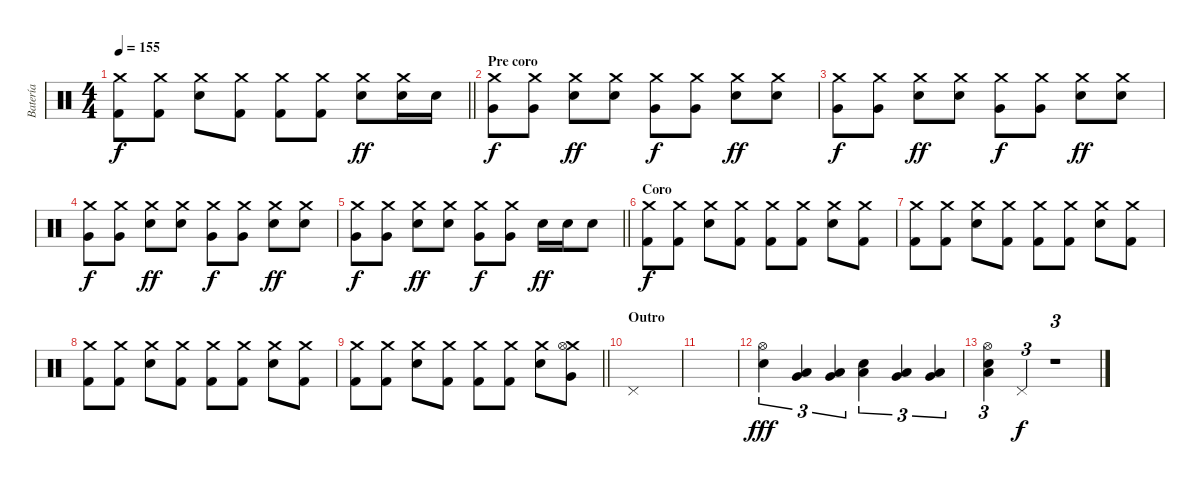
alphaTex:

\track ("Batería" "Batería") {instrument percussion}
\staff {score}
\articulation defaults
\ts (4 4)
\tempo 155
\clef neutral
\barLineRight lightlight
\ks c
("Crash medium (hit)" "Kick (hit) 2").8{dy f} ("Crash medium (hit)" "Kick (hit) 2").8 ("Crash medium (hit)" "Snare (hit) 2").8 ("Crash medium (hit)" "Kick (hit) 2").8 ("Crash medium (hit)" "Kick (hit) 2").8 ("Crash medium (hit)" "Kick (hit) 2").8 ("Crash medium (hit)" "Snare (hit) 2").8{dy ff} ("Crash medium (hit)" "Snare (hit) 2").16 "Snare (hit) 2".16 |
\section ("" "Pre coro")
("Crash medium (hit)" "Very Low Tom (hit)").8{dy f} ("Crash medium (hit)" "Very Low Tom (hit)").8 ("Crash medium (hit)" "Snare (hit) 2").8{dy ff} ("Crash medium (hit)" "Snare (hit) 2").8 ("Crash medium (hit)" "Very Low Tom (hit)").8{dy f} ("Crash medium (hit)" "Very Low Tom (hit)").8 ("Crash medium (hit)" "Snare (hit) 2").8{dy ff} ("Crash medium (hit)" "Snare (hit) 2").8 |
("Crash medium (hit)" "Very Low Tom (hit)").8{dy f} ("Crash medium (hit)" "Very Low Tom (hit)").8 ("Crash medium (hit)" "Snare (hit) 2").8{dy ff} ("Crash medium (hit)" "Snare (hit) 2").8 ("Crash medium (hit)" "Very Low Tom (hit)").8{dy f} ("Crash medium (hit)" "Very Low Tom (hit)").8 ("Crash medium (hit)" "Snare (hit) 2").8{dy ff} ("Crash medium (hit)" "Snare (hit) 2").8 |
("Crash medium (hit)" "Very Low Tom (hit)").8{dy f} ("Crash medium (hit)" "Very Low Tom (hit)").8 ("Crash medium (hit)" "Snare (hit) 2").8{dy ff} ("Crash medium (hit)" "Snare (hit) 2").8 ("Crash medium (hit)" "Very Low Tom (hit)").8{dy f} ("Crash medium (hit)" "Very Low Tom (hit)").8 ("Crash medium (hit)" "Snare (hit) 2").8{dy ff} ("Crash medium (hit)" "Snare (hit) 2").8 |
\barLineRight lightlight
("Crash medium (hit)" "Very Low Tom (hit)").8{dy f} ("Crash medium (hit)" "Very Low Tom (hit)").8 ("Crash medium (hit)" "Snare (hit) 2").8{dy ff} ("Crash medium (hit)" "Snare (hit) 2").8 ("Crash medium (hit)" "Very Low Tom (hit)").8{dy f} ("Crash medium (hit)" "Very Low Tom (hit)").8 "Snare (hit) 2".16{dy ff} "Snare (hit) 2".16 "Snare (hit) 2".8 |
\section ("" "Coro")
("Crash medium (hit)" "Kick (hit) 2").8{dy f} ("Crash medium (hit)" "Kick (hit) 2").8 ("Crash medium (hit)" "Snare (hit) 2").8 ("Crash medium (hit)" "Kick (hit) 2").8 ("Crash medium (hit)" "Kick (hit) 2").8 ("Crash medium (hit)" "Kick (hit) 2").8 ("Crash medium (hit)" "Snare (hit) 2").8 ("Crash medium (hit)" "Kick (hit) 2").8 |
("Crash medium (hit)" "Kick (hit) 2").8 ("Crash medium (hit)" "Kick (hit) 2").8 ("Crash medium (hit)" "Snare (hit) 2").8 ("Crash medium (hit)" "Kick (hit) 2").8 ("Crash medium (hit)" "Kick (hit) 2").8 ("Crash medium (hit)" "Kick (hit) 2").8 ("Crash medium (hit)" "Snare (hit) 2").8 ("Crash medium (hit)" "Kick (hit) 2").8 |
("Crash medium (hit)" "Kick (hit) 2").8 ("Crash medium (hit)" "Kick (hit) 2").8 ("Crash medium (hit)" "Snare (hit) 2").8 ("Crash medium (hit)" "Kick (hit) 2").8 ("Crash medium (hit)" "Kick (hit) 2").8 ("Crash medium (hit)" "Kick (hit) 2").8 ("Crash medium (hit)" "Snare (hit) 2").8 ("Crash medium (hit)" "Kick (hit) 2").8 |
\barLineRight lightlight
("Crash medium (hit)" "Kick (hit) 2").8 ("Crash medium (hit)" "Kick (hit) 2").8 ("Crash medium (hit)" "Snare (hit) 2").8 ("Crash medium (hit)" "Kick (hit) 2").8 ("Crash medium (hit)" "Kick (hit) 2").8 ("Crash medium (hit)" "Kick (hit) 2").8 ("Crash medium (hit)" "Snare (hit) 2").8 ("Crash medium (hit)" "Hi-Hat (open)" "Very Low Tom (hit)").8 |
\section ("" "Outro")
"Pedal Hi-Hat (hit)".1 |
|
("Hi-Hat (open)" "Snare (hit) 2").4{tu (3 2) dy fff} ("Very Low Tom (hit)" "Low Floor Tom (hit)").4{tu (3 2)} ("Very Low Tom (hit)" "Low Floor Tom (hit)").4{tu (3 2)} ("Snare (hit) 2" "Low Floor Tom (hit)").4{tu (3 2)} ("Very Low Tom (hit)" "Low Floor Tom (hit)").4{tu (3 2)} ("Very Low Tom (hit)" "Low Floor Tom (hit)").4{tu (3 2)} |
("Hi-Hat (open)" "Snare (hit) 2" "Low Floor Tom (hit)").4{tu (3 2)} "Pedal Hi-Hat (hit)".4{tu (3 2) dy f} r.1{tu (3 2)}
